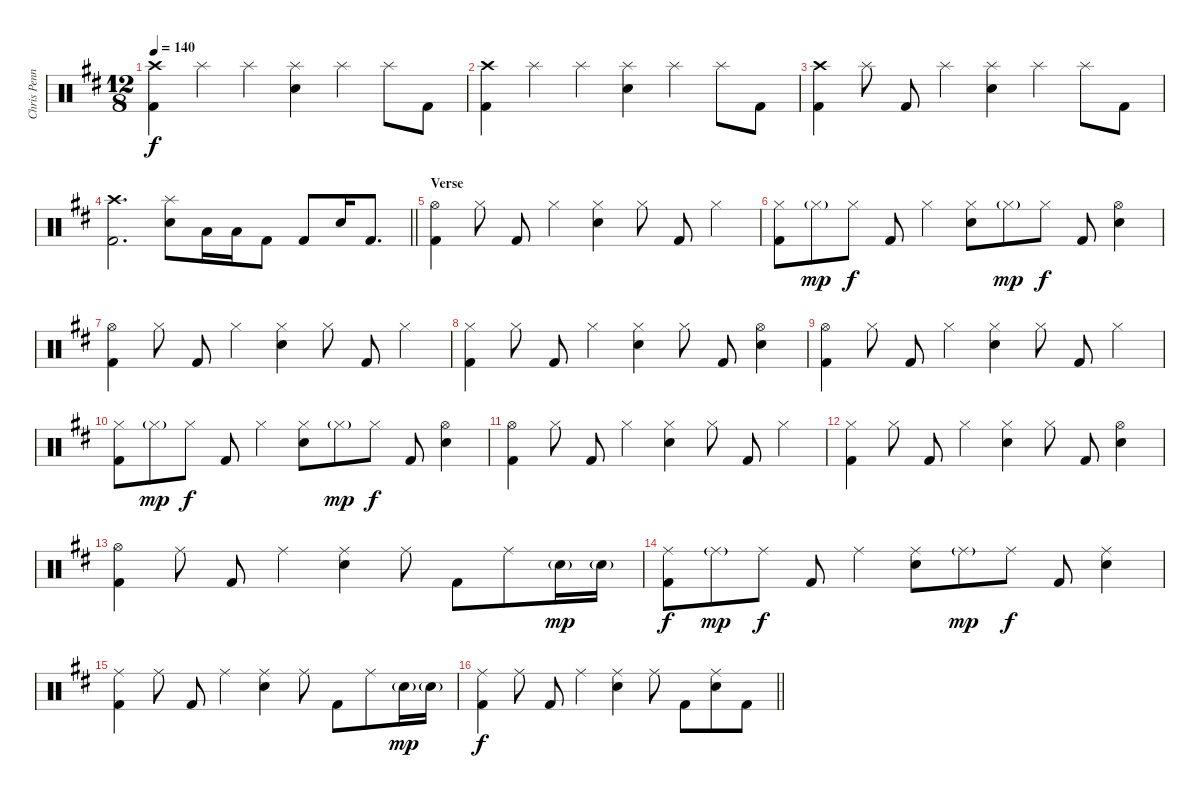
\track ("Chris Pennie/Taylor Hawkins - Drums" "Chris Penn") {instrument percussion}
\staff {score}
\articulation defaults
\ts (12 8)
\tempo 140
\clef neutral
\ks bminor
("Crash high (hit)" "Kick (hit) 2").4{dy f} "Splash (hit)".4 "Splash (hit)".4 ("Splash (hit)" "Electric Snare (hit)").4 "Splash (hit)".4 "Splash (hit)".8 "Kick (hit) 2".8 |
("Crash high (hit)" "Kick (hit) 2").4 "Splash (hit)".4 "Splash (hit)".4 ("Splash (hit)" "Electric Snare (hit)").4 "Splash (hit)".4 "Splash (hit)".8 "Kick (hit) 2".8 |
("Crash high (hit)" "Kick (hit) 2").4 "Splash (hit)".8 "Kick (hit) 2".8 "Splash (hit)".4 ("Splash (hit)" "Electric Snare (hit)").4 "Splash (hit)".4 "Splash (hit)".8 "Kick (hit) 2".8 |
\barLineRight lightlight
("Crash high (hit)" "Kick (hit) 2").2{d} ("Splash (hit)" "Electric Snare (hit)").8 "Low Tom (hit)".16 "Low Floor Tom (hit)".16 "Kick (hit) 2".8 "Kick (hit) 2".8 "Electric Snare (hit)".16 "Kick (hit) 2".8{d} |
\section ("" "Verse")
("Hi-Hat (open)" "Kick (hit) 2").4 "Hi-Hat (closed)".8 "Kick (hit) 2".8 "Hi-Hat (closed)".4 ("Hi-Hat (closed)" "Electric Snare (hit)").4 "Hi-Hat (closed)".8 "Kick (hit) 2".8 "Hi-Hat (closed)".4 |
("Hi-Hat (closed)" "Kick (hit) 2").8 "Hi-Hat (closed)"{g}.8{dy mp} "Hi-Hat (closed)".8{dy f} "Kick (hit) 2".8 "Hi-Hat (closed)".4 ("Hi-Hat (closed)" "Electric Snare (hit)").8 "Hi-Hat (closed)"{g}.8{dy mp} "Hi-Hat (closed)".8{dy f} "Kick (hit) 2".8 ("Hi-Hat (open)" "Electric Snare (hit)").4 |
("Hi-Hat (open)" "Kick (hit) 2").4 "Hi-Hat (closed)".8 "Kick (hit) 2".8 "Hi-Hat (closed)".4 ("Hi-Hat (closed)" "Electric Snare (hit)").4 "Hi-Hat (closed)".8 "Kick (hit) 2".8 "Hi-Hat (closed)".4 |
("Hi-Hat (closed)" "Kick (hit) 2").4 "Hi-Hat (closed)".8 "Kick (hit) 2".8 "Hi-Hat (closed)".4 ("Hi-Hat (closed)" "Electric Snare (hit)").4 "Hi-Hat (closed)".8 "Kick (hit) 2".8 ("Hi-Hat (open)" "Electric Snare (hit)").4 |
("Hi-Hat (open)" "Kick (hit) 2").4 "Hi-Hat (closed)".8 "Kick (hit) 2".8 "Hi-Hat (closed)".4 ("Hi-Hat (closed)" "Electric Snare (hit)").4 "Hi-Hat (closed)".8 "Kick (hit) 2".8 "Hi-Hat (closed)".4 |
("Hi-Hat (closed)" "Kick (hit) 2").8 "Hi-Hat (closed)"{g}.8{dy mp} "Hi-Hat (closed)".8{dy f} "Kick (hit) 2".8 "Hi-Hat (closed)".4 ("Hi-Hat (closed)" "Electric Snare (hit)").8 "Hi-Hat (closed)"{g}.8{dy mp} "Hi-Hat (closed)".8{dy f} "Kick (hit) 2".8 ("Hi-Hat (open)" "Electric Snare (hit)").4 |
("Hi-Hat (open)" "Kick (hit) 2").4 "Hi-Hat (closed)".8 "Kick (hit) 2".8 "Hi-Hat (closed)".4 ("Hi-Hat (closed)" "Electric Snare (hit)").4 "Hi-Hat (closed)".8 "Kick (hit) 2".8 "Hi-Hat (closed)".4 |
("Hi-Hat (closed)" "Kick (hit) 2").4 "Hi-Hat (closed)".8 "Kick (hit) 2".8 "Hi-Hat (closed)".4 ("Hi-Hat (closed)" "Electric Snare (hit)").4 "Hi-Hat (closed)".8 "Kick (hit) 2".8 ("Hi-Hat (open)" "Electric Snare (hit)").4 |
("Hi-Hat (open)" "Kick (hit) 2").4 "Ride (middle)".8 "Kick (hit) 2".8 "Ride (middle)".4 ("Ride (middle)" "Electric Snare (hit)").4 "Ride (middle)".8 "Kick (hit) 2".8 "Ride (middle)".8 "Electric Snare (hit)"{g}.16{dy mp} "Electric Snare (hit)"{g}.16 |
("Ride (middle)" "Kick (hit) 2").8{dy f} "Ride (middle)"{g}.8{dy mp} "Ride (middle)".8{dy f} "Kick (hit) 2".8 "Ride (middle)".4 ("Ride (middle)" "Electric Snare (hit)").8 "Ride (middle)"{g}.8{dy mp} "Ride (middle)".8{dy f} "Kick (hit) 2".8 ("Ride (middle)" "Electric Snare (hit)").4 |
("Ride (middle)" "Kick (hit) 2").4 "Ride (middle)".8 "Kick (hit) 2".8 "Ride (middle)".4 ("Ride (middle)" "Electric Snare (hit)").4 "Ride (middle)".8 "Kick (hit) 2".8 "Ride (middle)".8 "Electric Snare (hit)"{g}.16{dy mp} "Electric Snare (hit)"{g}.16 |
\barLineRight lightlight
("Ride (middle)" "Kick (hit) 2").4{dy f} "Ride (middle)".8 "Kick (hit) 2".8 "Ride (middle)".4 ("Ride (middle)" "Electric Snare (hit)").4 "Ride (middle)".8 "Kick (hit) 2".8 ("Ride (middle)" "Electric Snare (hit)").8 "Kick (hit) 2".8
